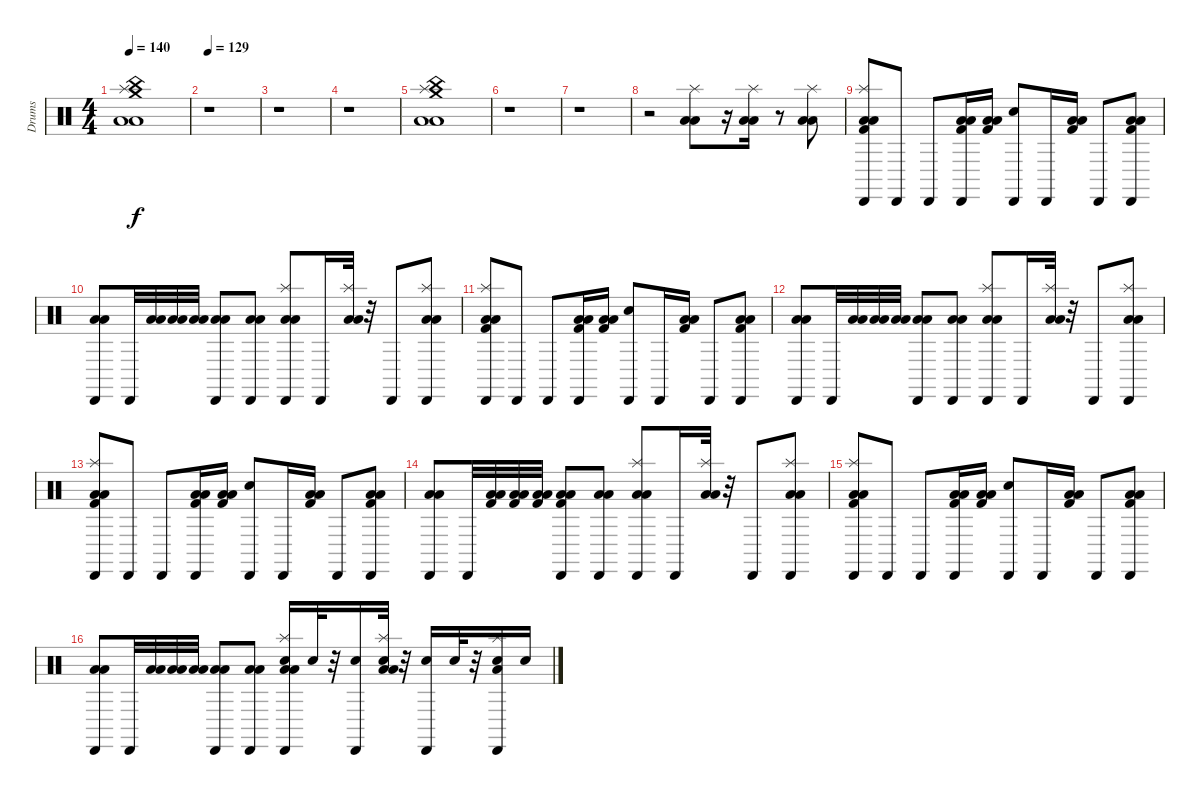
\track ("Drums" "Drums") {instrument percussion}
\staff {score}
\articulation defaults
\ts (4 4)
\tempo 140
\clef neutral
\ks c
("Crash medium (hit)" "China (hit)" "Low Tom (hit)" "Low Floor Tom (hit)" "Splash (hit)").1{dy f} |
\tempo 129
r.1 |
r.1 |
r.1 |
("Crash medium (hit)" "China (hit)" "Low Tom (hit)" "Low Floor Tom (hit)" "Splash (hit)").1 |
r.1 |
r.1 |
r.2 ("Low Floor Tom (hit)" "Low Tom (hit)" "Splash (hit)").8 r.16 ("Low Floor Tom (hit)" "Low Tom (hit)" "Splash (hit)").16 r.8 ("Low Floor Tom (hit)" "Low Tom (hit)" "Splash (hit)").8 |
("Splash (hit)" "Kick (hit) 2" "Low Floor Tom (hit)" "Low Tom (hit)" "Cabasa (hit)").8 "Cabasa (hit)".8 "Cabasa (hit)".8 ("Kick (hit) 2" "Low Floor Tom (hit)" "Low Tom (hit)" "Cabasa (hit)").16 ("Kick (hit) 2" "Low Floor Tom (hit)" "Low Tom (hit)").16 ("Electric Snare (hit)" "Cabasa (hit)").8 "Cabasa (hit)".16 ("Kick (hit) 2" "Low Tom (hit)" "Low Floor Tom (hit)").16 "Cabasa (hit)".8 ("Kick (hit) 2" "Low Tom (hit)" "Low Floor Tom (hit)" "Cabasa (hit)").8 |
("Low Floor Tom (hit)" "Low Tom (hit)" "Cabasa (hit)").8 "Cabasa (hit)".32 ("Low Floor Tom (hit)" "Low Tom (hit)").32 ("Low Tom (hit)" "Low Floor Tom (hit)").32 ("Low Floor Tom (hit)" "Low Tom (hit)").32 ("Low Floor Tom (hit)" "Low Tom (hit)" "Cabasa (hit)").8 ("Low Tom (hit)" "Low Floor Tom (hit)" "Cabasa (hit)").8 ("Low Floor Tom (hit)" "Low Tom (hit)" "Splash (hit)" "Cabasa (hit)").8 "Cabasa (hit)".16 ("Low Floor Tom (hit)" "Low Tom (hit)" "Splash (hit)").32 r.32 "Cabasa (hit)".8 ("Low Tom (hit)" "Low Floor Tom (hit)" "Splash (hit)" "Cabasa (hit)").8 |
("Splash (hit)" "Kick (hit) 2" "Low Floor Tom (hit)" "Low Tom (hit)" "Cabasa (hit)").8 "Cabasa (hit)".8 "Cabasa (hit)".8 ("Kick (hit) 2" "Low Floor Tom (hit)" "Low Tom (hit)" "Cabasa (hit)").16 ("Kick (hit) 2" "Low Floor Tom (hit)" "Low Tom (hit)").16 ("Electric Snare (hit)" "Cabasa (hit)").8 "Cabasa (hit)".16 ("Kick (hit) 2" "Low Tom (hit)" "Low Floor Tom (hit)").16 "Cabasa (hit)".8 ("Kick (hit) 2" "Low Tom (hit)" "Low Floor Tom (hit)" "Cabasa (hit)").8 |
("Low Floor Tom (hit)" "Low Tom (hit)" "Cabasa (hit)").8 "Cabasa (hit)".32 ("Low Floor Tom (hit)" "Low Tom (hit)").32 ("Low Tom (hit)" "Low Floor Tom (hit)").32 ("Low Floor Tom (hit)" "Low Tom (hit)").32 ("Low Floor Tom (hit)" "Low Tom (hit)" "Cabasa (hit)").8 ("Low Tom (hit)" "Low Floor Tom (hit)" "Cabasa (hit)").8 ("Low Floor Tom (hit)" "Low Tom (hit)" "Splash (hit)" "Cabasa (hit)").8 "Cabasa (hit)".16 ("Low Floor Tom (hit)" "Low Tom (hit)" "Splash (hit)").32 r.32 "Cabasa (hit)".8 ("Low Tom (hit)" "Low Floor Tom (hit)" "Splash (hit)" "Cabasa (hit)").8 |
("Splash (hit)" "Kick (hit) 2" "Low Floor Tom (hit)" "Low Tom (hit)" "Cabasa (hit)").8 "Cabasa (hit)".8 "Cabasa (hit)".8 ("Kick (hit) 2" "Low Floor Tom (hit)" "Low Tom (hit)" "Cabasa (hit)").16 ("Kick (hit) 2" "Low Floor Tom (hit)" "Low Tom (hit)").16 ("Electric Snare (hit)" "Cabasa (hit)").8 "Cabasa (hit)".16 ("Kick (hit) 2" "Low Tom (hit)" "Low Floor Tom (hit)").16 "Cabasa (hit)".8 ("Kick (hit) 2" "Low Tom (hit)" "Low Floor Tom (hit)" "Cabasa (hit)").8 |
("Low Floor Tom (hit)" "Low Tom (hit)" "Cabasa (hit)").8 "Cabasa (hit)".32 ("Kick (hit) 2" "Low Floor Tom (hit)" "Low Tom (hit)").32 ("Kick (hit) 2" "Low Tom (hit)" "Low Floor Tom (hit)").32 ("Kick (hit) 2" "Low Floor Tom (hit)" "Low Tom (hit)").32 ("Kick (hit) 2" "Low Floor Tom (hit)" "Low Tom (hit)" "Cabasa (hit)").8 ("Low Tom (hit)" "Low Floor Tom (hit)" "Cabasa (hit)").8 ("Low Floor Tom (hit)" "Low Tom (hit)" "Splash (hit)" "Cabasa (hit)").8 "Cabasa (hit)".16 ("Low Floor Tom (hit)" "Low Tom (hit)" "Splash (hit)").32 r.32 "Cabasa (hit)".8 ("Low Tom (hit)" "Low Floor Tom (hit)" "Splash (hit)" "Cabasa (hit)").8 |
("Splash (hit)" "Kick (hit) 2" "Low Floor Tom (hit)" "Low Tom (hit)" "Cabasa (hit)").8 "Cabasa (hit)".8 "Cabasa (hit)".8 ("Kick (hit) 2" "Low Floor Tom (hit)" "Low Tom (hit)" "Cabasa (hit)").16 ("Kick (hit) 2" "Low Floor Tom (hit)" "Low Tom (hit)").16 ("Electric Snare (hit)" "Cabasa (hit)").8 "Cabasa (hit)".16 ("Kick (hit) 2" "Low Tom (hit)" "Low Floor Tom (hit)").16 "Cabasa (hit)".8 ("Kick (hit) 2" "Low Tom (hit)" "Low Floor Tom (hit)" "Cabasa (hit)").8 |
("Low Floor Tom (hit)" "Low Tom (hit)" "Cabasa (hit)").8 "Cabasa (hit)".32 ("Low Floor Tom (hit)" "Low Tom (hit)").32 ("Low Tom (hit)" "Low Floor Tom (hit)").32 ("Low Floor Tom (hit)" "Low Tom (hit)").32 ("Low Floor Tom (hit)" "Low Tom (hit)" "Cabasa (hit)").8 ("Low Tom (hit)" "Low Floor Tom (hit)" "Cabasa (hit)").8 ("Snare (hit) 2" "Low Floor Tom (hit)" "Low Tom (hit)" "Splash (hit)" "Cabasa (hit)").16 "Snare (hit) 2".32 r.32 ("Snare (hit) 2" "Cabasa (hit)").16 ("Snare (hit) 2" "Low Floor Tom (hit)" "Low Tom (hit)" "Splash (hit)").32 r.32 ("Snare (hit) 2" "Cabasa (hit)").16 "Electric Snare (hit)".32 r.32 ("Electric Snare (hit)" "Low Tom (hit)" "Splash (hit)" "Cabasa (hit)").16 "Electric Snare (hit)".16
